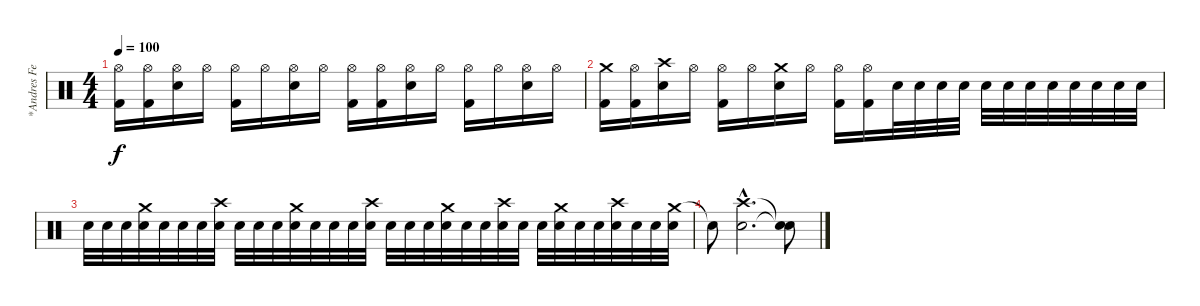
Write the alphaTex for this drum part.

\track ("*Andres Felipe" "*Andres Fe") {instrument percussion}
\staff {score}
\articulation defaults
\ts (4 4)
\tempo 100
\clef neutral
\ks c
("Hi-Hat (open)" "Kick (hit) 2").16{dy f} ("Hi-Hat (open)" "Kick (hit) 2").16 ("Hi-Hat (open)" "Electric Snare (hit)").16 "Hi-Hat (open)".16 ("Hi-Hat (open)" "Kick (hit) 2").16 "Hi-Hat (open)".16 ("Hi-Hat (open)" "Electric Snare (hit)").16 "Hi-Hat (open)".16 ("Hi-Hat (open)" "Kick (hit) 2").16 ("Hi-Hat (open)" "Kick (hit) 2").16 ("Hi-Hat (open)" "Electric Snare (hit)").16 "Hi-Hat (open)".16 ("Hi-Hat (open)" "Kick (hit) 2").16 "Hi-Hat (open)".16 ("Hi-Hat (open)" "Electric Snare (hit)").16 "Hi-Hat (open)".16 |
("Crash medium (hit)" "Kick (hit) 2").16 ("Hi-Hat (open)" "Kick (hit) 2").16 ("Crash high (hit)" "Electric Snare (hit)").16 "Hi-Hat (open)".16 ("Hi-Hat (open)" "Kick (hit) 2").16 "Hi-Hat (open)".16 ("Crash medium (hit)" "Electric Snare (hit)").16 "Hi-Hat (open)".16 ("Hi-Hat (open)" "Kick (hit) 2").16 ("Hi-Hat (open)" "Kick (hit) 2").16 "Electric Snare (hit)".32 "Electric Snare (hit)".32 "Electric Snare (hit)".32 "Electric Snare (hit)".32 "Electric Snare (hit)".32 "Electric Snare (hit)".32 "Electric Snare (hit)".32 "Electric Snare (hit)".32 "Electric Snare (hit)".32 "Electric Snare (hit)".32 "Electric Snare (hit)".32 "Electric Snare (hit)".32 |
"Electric Snare (hit)".32 "Electric Snare (hit)".32 "Electric Snare (hit)".32 ("Crash medium (hit)" "Electric Snare (hit)").32 "Electric Snare (hit)".32 "Electric Snare (hit)".32 "Electric Snare (hit)".32 ("Crash high (hit)" "Electric Snare (hit)").32 "Electric Snare (hit)".32 "Electric Snare (hit)".32 "Electric Snare (hit)".32 ("Crash medium (hit)" "Electric Snare (hit)").32 "Electric Snare (hit)".32 "Electric Snare (hit)".32 "Electric Snare (hit)".32 ("Crash high (hit)" "Electric Snare (hit)").32 "Electric Snare (hit)".32 "Electric Snare (hit)".32 "Electric Snare (hit)".32 ("Crash medium (hit)" "Electric Snare (hit)").32 "Electric Snare (hit)".32 "Electric Snare (hit)".32 ("Crash high (hit)" "Electric Snare (hit)").32 "Electric Snare (hit)".32 "Electric Snare (hit)".32 ("Crash medium (hit)" "Electric Snare (hit)").32 "Electric Snare (hit)".32 "Electric Snare (hit)".32 ("Crash high (hit)" "Electric Snare (hit)").32 "Electric Snare (hit)".32 "Electric Snare (hit)".32 ("Crash medium (hit)" "Electric Snare (hit)").32 |
"Snare (hit)"{t}.8 ("Crash high (hit)"{hac} "Electric Snare (hit)"{hac}).2{d} ("Snare (hit)"{t} "Snare (hit)"{t}).8
